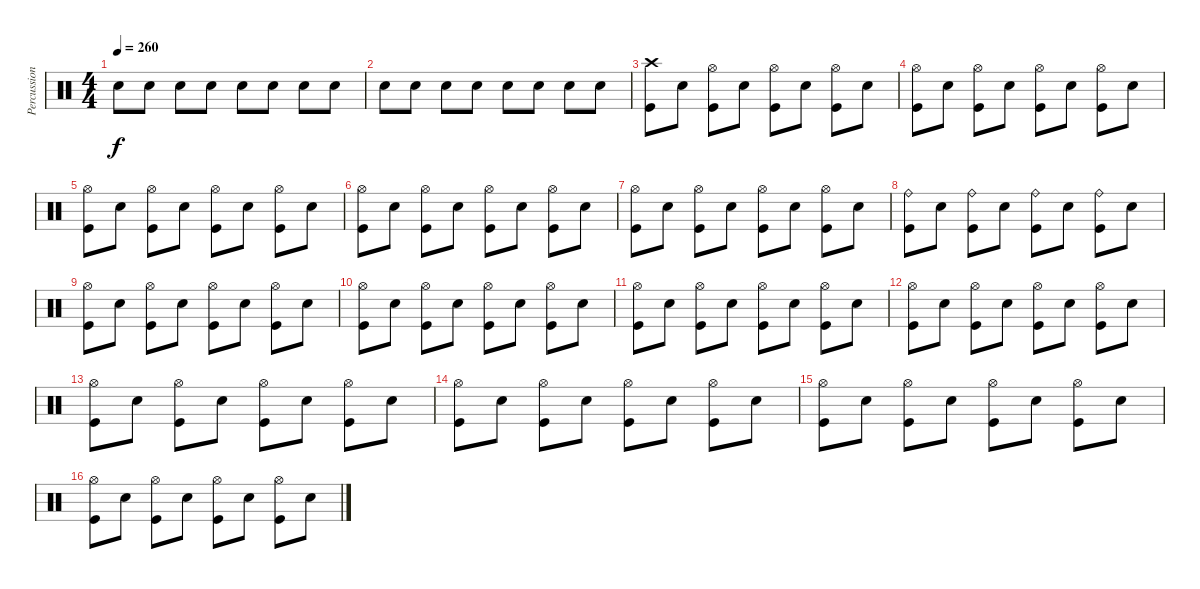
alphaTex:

\track ("Percussion" "Percussion") {instrument percussion}
\staff {score}
\articulation defaults
\ts (4 4)
\tempo 260
\clef neutral
\ks c "Snare (hit) 2".8{dy f} "Snare (hit) 2".8 "Snare (hit) 2".8 "Snare (hit) 2".8 "Snare (hit) 2".8 "Snare (hit) 2".8 "Snare (hit) 2".8 "Snare (hit) 2".8
|
"Snare (hit) 2".8 "Snare (hit) 2".8 "Snare (hit) 2".8 "Snare (hit) 2".8 "Snare (hit) 2".8 "Snare (hit) 2".8 "Snare (hit) 2".8 "Snare (hit) 2".8 |
("Kick (hit)" "Crash high (hit)").8 "Snare (hit) 2".8 ("Kick (hit)" "Hi-Hat (open)").8 "Snare (hit) 2".8 ("Kick (hit)" "Hi-Hat (open)").8 "Snare (hit) 2".8 ("Kick (hit)" "Hi-Hat (open)").8 "Snare (hit) 2".8 |
("Kick (hit)" "Hi-Hat (open)").8 "Snare (hit) 2".8 ("Kick (hit)" "Hi-Hat (open)").8 "Snare (hit) 2".8 ("Kick (hit)" "Hi-Hat (open)").8 "Snare (hit) 2".8 ("Kick (hit)" "Hi-Hat (open)").8 "Snare (hit) 2".8 |
("Kick (hit)" "Hi-Hat (open)").8 "Snare (hit) 2".8 ("Kick (hit)" "Hi-Hat (open)").8 "Snare (hit) 2".8 ("Kick (hit)" "Hi-Hat (open)").8 "Snare (hit) 2".8 ("Kick (hit)" "Hi-Hat (open)").8 "Snare (hit) 2".8 |
("Kick (hit)" "Hi-Hat (open)").8 "Snare (hit) 2".8 ("Kick (hit)" "Hi-Hat (open)").8 "Snare (hit) 2".8 ("Kick (hit)" "Hi-Hat (open)").8 "Snare (hit) 2".8 ("Kick (hit)" "Hi-Hat (open)").8 "Snare (hit) 2".8 |
("Kick (hit)" "Hi-Hat (open)").8 "Snare (hit) 2".8 ("Kick (hit)" "Hi-Hat (open)").8 "Snare (hit) 2".8 ("Kick (hit)" "Hi-Hat (open)").8 "Snare (hit) 2".8 ("Kick (hit)" "Hi-Hat (open)").8 "Snare (hit) 2".8 |
("Kick (hit)" "Ride (bell)").8 "Snare (hit) 2".8 ("Kick (hit)" "Ride (bell)").8 "Snare (hit) 2".8 ("Kick (hit)" "Ride (bell)").8 "Snare (hit) 2".8 ("Kick (hit)" "Ride (bell)").8 "Snare (hit) 2".8 |
("Kick (hit)" "Hi-Hat (open)").8 "Snare (hit) 2".8 ("Kick (hit)" "Hi-Hat (open)").8 "Snare (hit) 2".8 ("Kick (hit)" "Hi-Hat (open)").8 "Snare (hit) 2".8 ("Kick (hit)" "Hi-Hat (open)").8 "Snare (hit) 2".8 |
("Kick (hit)" "Hi-Hat (open)").8 "Snare (hit) 2".8 ("Kick (hit)" "Hi-Hat (open)").8 "Snare (hit) 2".8 ("Kick (hit)" "Hi-Hat (open)").8 "Snare (hit) 2".8 ("Kick (hit)" "Hi-Hat (open)").8 "Snare (hit) 2".8 |
("Kick (hit)" "Hi-Hat (open)").8 "Snare (hit) 2".8 ("Kick (hit)" "Hi-Hat (open)").8 "Snare (hit) 2".8 ("Kick (hit)" "Hi-Hat (open)").8 "Snare (hit) 2".8 ("Kick (hit)" "Hi-Hat (open)").8 "Snare (hit) 2".8 |
("Kick (hit)" "Hi-Hat (open)").8 "Snare (hit) 2".8 ("Kick (hit)" "Hi-Hat (open)").8 "Snare (hit) 2".8 ("Kick (hit)" "Hi-Hat (open)").8 "Snare (hit) 2".8 ("Kick (hit)" "Hi-Hat (open)").8 "Snare (hit) 2".8 |
("Kick (hit)" "Hi-Hat (open)").8 "Snare (hit) 2".8 ("Kick (hit)" "Hi-Hat (open)").8 "Snare (hit) 2".8 ("Kick (hit)" "Hi-Hat (open)").8 "Snare (hit) 2".8 ("Kick (hit)" "Hi-Hat (open)").8 "Snare (hit) 2".8 |
("Kick (hit)" "Hi-Hat (open)").8 "Snare (hit) 2".8 ("Kick (hit)" "Hi-Hat (open)").8 "Snare (hit) 2".8 ("Kick (hit)" "Hi-Hat (open)").8 "Snare (hit) 2".8 ("Kick (hit)" "Hi-Hat (open)").8 "Snare (hit) 2".8 |
("Kick (hit)" "Hi-Hat (open)").8 "Snare (hit) 2".8 ("Kick (hit)" "Hi-Hat (open)").8 "Snare (hit) 2".8 ("Kick (hit)" "Hi-Hat (open)").8 "Snare (hit) 2".8 ("Kick (hit)" "Hi-Hat (open)").8 "Snare (hit) 2".8 |
("Kick (hit)" "Hi-Hat (open)").8 "Snare (hit) 2".8 ("Kick (hit)" "Hi-Hat (open)").8 "Snare (hit) 2".8 ("Kick (hit)" "Hi-Hat (open)").8 "Snare (hit) 2".8 ("Kick (hit)" "Hi-Hat (open)").8 "Snare (hit) 2".8
